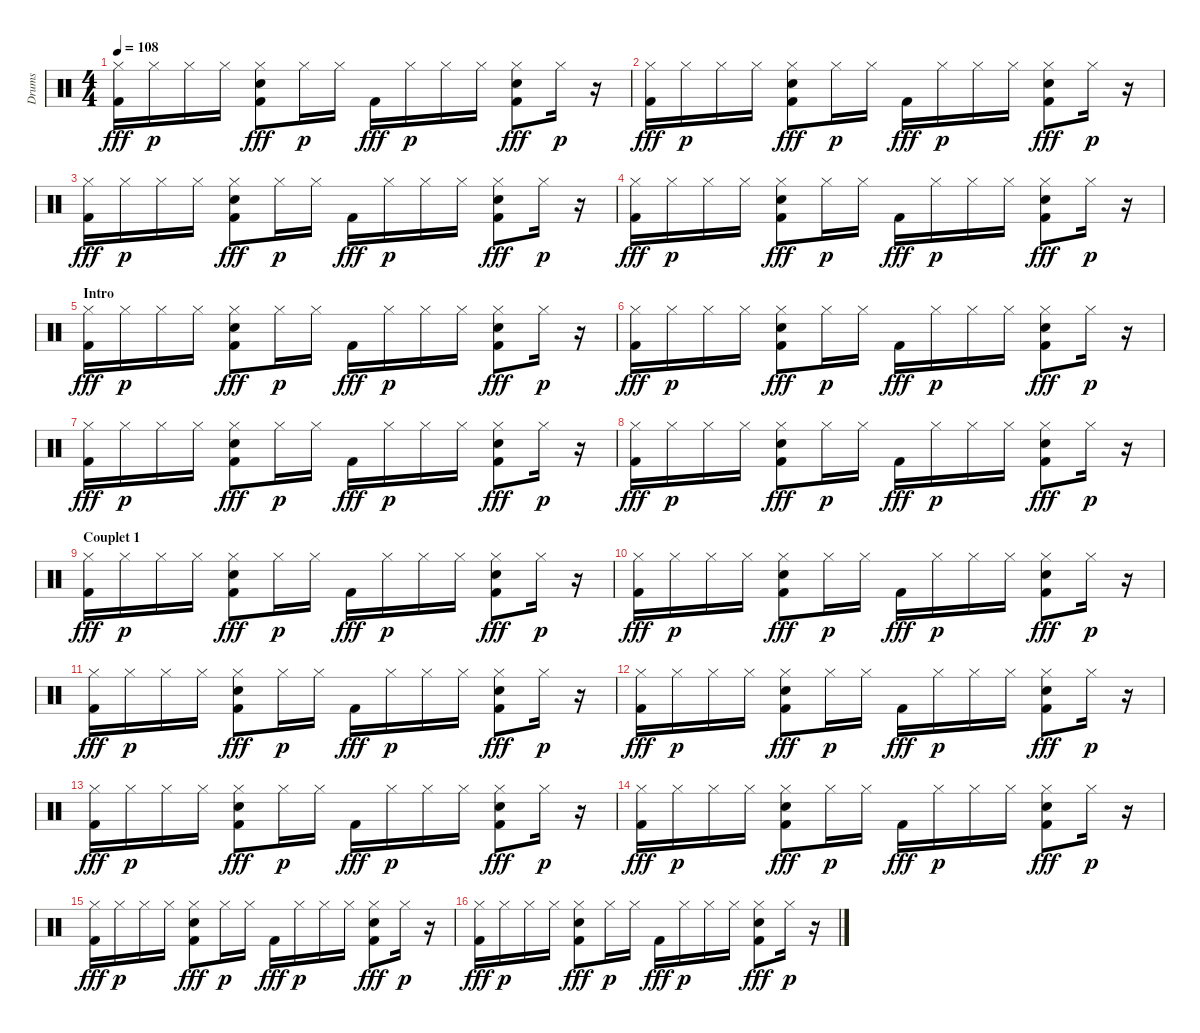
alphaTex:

\track ("Drums" "Drums") {instrument percussion}
\staff {score}
\articulation defaults
\ts (4 4)
\tempo 108
\clef neutral
\ks c
("Hi-Hat (closed)" "Kick (hit) 2").16{dy fff} "Hi-Hat (closed)".16{dy p} "Hi-Hat (closed)".16 "Hi-Hat (closed)".16 ("Hi-Hat (closed)" "Hand Clap (hit)" "Kick (hit) 2").8{dy fff} "Hi-Hat (closed)".16{dy p} "Hi-Hat (closed)".16 "Kick (hit) 2".16{dy fff} "Hi-Hat (closed)".16{dy p} "Hi-Hat (closed)".16 "Hi-Hat (closed)".16 ("Hi-Hat (closed)" "Hand Clap (hit)" "Kick (hit) 2").8{dy fff} "Hi-Hat (closed)".16{dy p} r.16 |
("Hi-Hat (closed)" "Kick (hit) 2").16{dy fff} "Hi-Hat (closed)".16{dy p} "Hi-Hat (closed)".16 "Hi-Hat (closed)".16 ("Hi-Hat (closed)" "Hand Clap (hit)" "Kick (hit) 2").8{dy fff} "Hi-Hat (closed)".16{dy p} "Hi-Hat (closed)".16 "Kick (hit) 2".16{dy fff} "Hi-Hat (closed)".16{dy p} "Hi-Hat (closed)".16 "Hi-Hat (closed)".16 ("Hi-Hat (closed)" "Hand Clap (hit)" "Kick (hit) 2").8{dy fff} "Hi-Hat (closed)".16{dy p} r.16 |
("Hi-Hat (closed)" "Kick (hit) 2").16{dy fff} "Hi-Hat (closed)".16{dy p} "Hi-Hat (closed)".16 "Hi-Hat (closed)".16 ("Hi-Hat (closed)" "Hand Clap (hit)" "Kick (hit) 2").8{dy fff} "Hi-Hat (closed)".16{dy p} "Hi-Hat (closed)".16 "Kick (hit) 2".16{dy fff} "Hi-Hat (closed)".16{dy p} "Hi-Hat (closed)".16 "Hi-Hat (closed)".16 ("Hi-Hat (closed)" "Hand Clap (hit)" "Kick (hit) 2").8{dy fff} "Hi-Hat (closed)".16{dy p} r.16 |
("Hi-Hat (closed)" "Kick (hit) 2").16{dy fff} "Hi-Hat (closed)".16{dy p} "Hi-Hat (closed)".16 "Hi-Hat (closed)".16 ("Hi-Hat (closed)" "Hand Clap (hit)" "Kick (hit) 2").8{dy fff} "Hi-Hat (closed)".16{dy p} "Hi-Hat (closed)".16 "Kick (hit) 2".16{dy fff} "Hi-Hat (closed)".16{dy p} "Hi-Hat (closed)".16 "Hi-Hat (closed)".16 ("Hi-Hat (closed)" "Hand Clap (hit)" "Kick (hit) 2").8{dy fff} "Hi-Hat (closed)".16{dy p} r.16 |
\section ("" "Intro")
("Hi-Hat (closed)" "Kick (hit) 2").16{dy fff} "Hi-Hat (closed)".16{dy p} "Hi-Hat (closed)".16 "Hi-Hat (closed)".16 ("Hi-Hat (closed)" "Hand Clap (hit)" "Kick (hit) 2").8{dy fff} "Hi-Hat (closed)".16{dy p} "Hi-Hat (closed)".16 "Kick (hit) 2".16{dy fff} "Hi-Hat (closed)".16{dy p} "Hi-Hat (closed)".16 "Hi-Hat (closed)".16 ("Hi-Hat (closed)" "Hand Clap (hit)" "Kick (hit) 2").8{dy fff} "Hi-Hat (closed)".16{dy p} r.16 |
("Hi-Hat (closed)" "Kick (hit) 2").16{dy fff} "Hi-Hat (closed)".16{dy p} "Hi-Hat (closed)".16 "Hi-Hat (closed)".16 ("Hi-Hat (closed)" "Hand Clap (hit)" "Kick (hit) 2").8{dy fff} "Hi-Hat (closed)".16{dy p} "Hi-Hat (closed)".16 "Kick (hit) 2".16{dy fff} "Hi-Hat (closed)".16{dy p} "Hi-Hat (closed)".16 "Hi-Hat (closed)".16 ("Hi-Hat (closed)" "Hand Clap (hit)" "Kick (hit) 2").8{dy fff} "Hi-Hat (closed)".16{dy p} r.16 |
("Hi-Hat (closed)" "Kick (hit) 2").16{dy fff} "Hi-Hat (closed)".16{dy p} "Hi-Hat (closed)".16 "Hi-Hat (closed)".16 ("Hi-Hat (closed)" "Hand Clap (hit)" "Kick (hit) 2").8{dy fff} "Hi-Hat (closed)".16{dy p} "Hi-Hat (closed)".16 "Kick (hit) 2".16{dy fff} "Hi-Hat (closed)".16{dy p} "Hi-Hat (closed)".16 "Hi-Hat (closed)".16 ("Hi-Hat (closed)" "Hand Clap (hit)" "Kick (hit) 2").8{dy fff} "Hi-Hat (closed)".16{dy p} r.16 |
("Hi-Hat (closed)" "Kick (hit) 2").16{dy fff} "Hi-Hat (closed)".16{dy p} "Hi-Hat (closed)".16 "Hi-Hat (closed)".16 ("Hi-Hat (closed)" "Hand Clap (hit)" "Kick (hit) 2").8{dy fff} "Hi-Hat (closed)".16{dy p} "Hi-Hat (closed)".16 "Kick (hit) 2".16{dy fff} "Hi-Hat (closed)".16{dy p} "Hi-Hat (closed)".16 "Hi-Hat (closed)".16 ("Hi-Hat (closed)" "Hand Clap (hit)" "Kick (hit) 2").8{dy fff} "Hi-Hat (closed)".16{dy p} r.16 |
\section ("" "Couplet 1")
("Hi-Hat (closed)" "Kick (hit) 2").16{dy fff} "Hi-Hat (closed)".16{dy p} "Hi-Hat (closed)".16 "Hi-Hat (closed)".16 ("Hi-Hat (closed)" "Hand Clap (hit)" "Kick (hit) 2").8{dy fff} "Hi-Hat (closed)".16{dy p} "Hi-Hat (closed)".16 "Kick (hit) 2".16{dy fff} "Hi-Hat (closed)".16{dy p} "Hi-Hat (closed)".16 "Hi-Hat (closed)".16 ("Hi-Hat (closed)" "Hand Clap (hit)" "Kick (hit) 2").8{dy fff} "Hi-Hat (closed)".16{dy p} r.16 |
("Hi-Hat (closed)" "Kick (hit) 2").16{dy fff} "Hi-Hat (closed)".16{dy p} "Hi-Hat (closed)".16 "Hi-Hat (closed)".16 ("Hi-Hat (closed)" "Hand Clap (hit)" "Kick (hit) 2").8{dy fff} "Hi-Hat (closed)".16{dy p} "Hi-Hat (closed)".16 "Kick (hit) 2".16{dy fff} "Hi-Hat (closed)".16{dy p} "Hi-Hat (closed)".16 "Hi-Hat (closed)".16 ("Hi-Hat (closed)" "Hand Clap (hit)" "Kick (hit) 2").8{dy fff} "Hi-Hat (closed)".16{dy p} r.16 |
("Hi-Hat (closed)" "Kick (hit) 2").16{dy fff} "Hi-Hat (closed)".16{dy p} "Hi-Hat (closed)".16 "Hi-Hat (closed)".16 ("Hi-Hat (closed)" "Hand Clap (hit)" "Kick (hit) 2").8{dy fff} "Hi-Hat (closed)".16{dy p} "Hi-Hat (closed)".16 "Kick (hit) 2".16{dy fff} "Hi-Hat (closed)".16{dy p} "Hi-Hat (closed)".16 "Hi-Hat (closed)".16 ("Hi-Hat (closed)" "Hand Clap (hit)" "Kick (hit) 2").8{dy fff} "Hi-Hat (closed)".16{dy p} r.16 |
("Hi-Hat (closed)" "Kick (hit) 2").16{dy fff} "Hi-Hat (closed)".16{dy p} "Hi-Hat (closed)".16 "Hi-Hat (closed)".16 ("Hi-Hat (closed)" "Hand Clap (hit)" "Kick (hit) 2").8{dy fff} "Hi-Hat (closed)".16{dy p} "Hi-Hat (closed)".16 "Kick (hit) 2".16{dy fff} "Hi-Hat (closed)".16{dy p} "Hi-Hat (closed)".16 "Hi-Hat (closed)".16 ("Hi-Hat (closed)" "Hand Clap (hit)" "Kick (hit) 2").8{dy fff} "Hi-Hat (closed)".16{dy p} r.16 |
("Hi-Hat (closed)" "Kick (hit) 2").16{dy fff} "Hi-Hat (closed)".16{dy p} "Hi-Hat (closed)".16 "Hi-Hat (closed)".16 ("Hi-Hat (closed)" "Hand Clap (hit)" "Kick (hit) 2").8{dy fff} "Hi-Hat (closed)".16{dy p} "Hi-Hat (closed)".16 "Kick (hit) 2".16{dy fff} "Hi-Hat (closed)".16{dy p} "Hi-Hat (closed)".16 "Hi-Hat (closed)".16 ("Hi-Hat (closed)" "Hand Clap (hit)" "Kick (hit) 2").8{dy fff} "Hi-Hat (closed)".16{dy p} r.16 |
("Hi-Hat (closed)" "Kick (hit) 2").16{dy fff} "Hi-Hat (closed)".16{dy p} "Hi-Hat (closed)".16 "Hi-Hat (closed)".16 ("Hi-Hat (closed)" "Hand Clap (hit)" "Kick (hit) 2").8{dy fff} "Hi-Hat (closed)".16{dy p} "Hi-Hat (closed)".16 "Kick (hit) 2".16{dy fff} "Hi-Hat (closed)".16{dy p} "Hi-Hat (closed)".16 "Hi-Hat (closed)".16 ("Hi-Hat (closed)" "Hand Clap (hit)" "Kick (hit) 2").8{dy fff} "Hi-Hat (closed)".16{dy p} r.16 |
("Hi-Hat (closed)" "Kick (hit) 2").16{dy fff} "Hi-Hat (closed)".16{dy p} "Hi-Hat (closed)".16 "Hi-Hat (closed)".16 ("Hi-Hat (closed)" "Hand Clap (hit)" "Kick (hit) 2").8{dy fff} "Hi-Hat (closed)".16{dy p} "Hi-Hat (closed)".16 "Kick (hit) 2".16{dy fff} "Hi-Hat (closed)".16{dy p} "Hi-Hat (closed)".16 "Hi-Hat (closed)".16 ("Hi-Hat (closed)" "Hand Clap (hit)" "Kick (hit) 2").8{dy fff} "Hi-Hat (closed)".16{dy p} r.16 |
("Hi-Hat (closed)" "Kick (hit) 2").16{dy fff} "Hi-Hat (closed)".16{dy p} "Hi-Hat (closed)".16 "Hi-Hat (closed)".16 ("Hi-Hat (closed)" "Hand Clap (hit)" "Kick (hit) 2").8{dy fff} "Hi-Hat (closed)".16{dy p} "Hi-Hat (closed)".16 "Kick (hit) 2".16{dy fff} "Hi-Hat (closed)".16{dy p} "Hi-Hat (closed)".16 "Hi-Hat (closed)".16 ("Hi-Hat (closed)" "Hand Clap (hit)" "Kick (hit) 2").8{dy fff} "Hi-Hat (closed)".16{dy p} r.16
